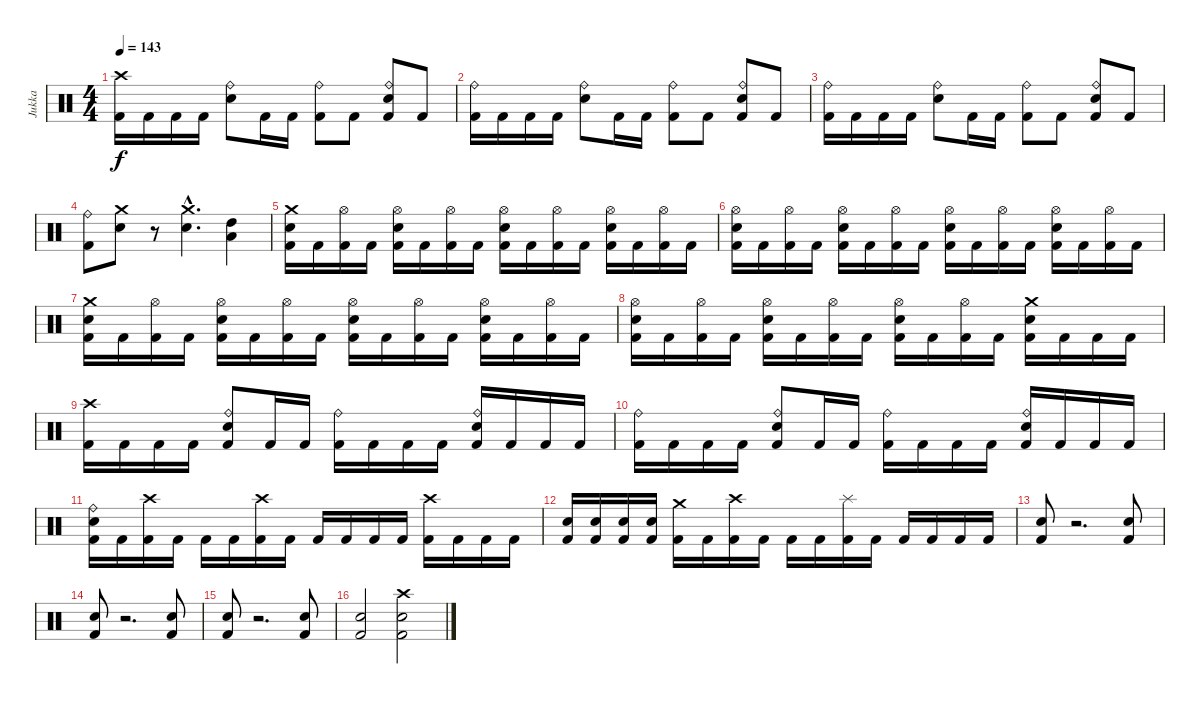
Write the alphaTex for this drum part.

\track ("Jukka" "Jukka") {instrument percussion}
\staff {score}
\articulation defaults
\ts (4 4)
\tempo 143
\clef neutral
\ks c
("Crash high (hit)" "Kick (hit) 2").16{dy f} "Kick (hit) 2".16 "Kick (hit) 2".16 "Kick (hit) 2".16 ("Ride (bell)" "Electric Snare (hit)").8 "Kick (hit) 2".16 "Kick (hit) 2".16 ("Ride (bell)" "Kick (hit) 2").8 "Kick (hit) 2".8 ("Ride (bell)" "Electric Snare (hit)" "Kick (hit) 2").8 "Kick (hit) 2".8 |
("Ride (bell)" "Kick (hit) 2").16 "Kick (hit) 2".16 "Kick (hit) 2".16 "Kick (hit) 2".16 ("Ride (bell)" "Electric Snare (hit)").8 "Kick (hit) 2".16 "Kick (hit) 2".16 ("Ride (bell)" "Kick (hit) 2").8 "Kick (hit) 2".8 ("Ride (bell)" "Electric Snare (hit)" "Kick (hit) 2").8 "Kick (hit) 2".8 |
("Ride (bell)" "Kick (hit) 2").16 "Kick (hit) 2".16 "Kick (hit) 2".16 "Kick (hit) 2".16 ("Ride (bell)" "Electric Snare (hit)").8 "Kick (hit) 2".16 "Kick (hit) 2".16 ("Ride (bell)" "Kick (hit) 2").8 "Kick (hit) 2".8 ("Ride (bell)" "Electric Snare (hit)" "Kick (hit) 2").8 "Kick (hit) 2".8 |
("Ride (bell)" "Kick (hit) 2").8 ("Crash medium (hit)" "Electric Snare (hit)").8 r.8 ("Crash medium (hit)"{hac} "Electric Snare (hit)"{hac}).4{d} ("High Tom (hit)" "Low Tom (hit)").4 |
("Crash medium (hit)" "Electric Snare (hit)" "Kick (hit) 2").16 "Kick (hit) 2".16 ("Hi-Hat (open)" "Kick (hit) 2").16 "Kick (hit) 2".16 ("Hi-Hat (open)" "Electric Snare (hit)" "Kick (hit) 2").16 "Kick (hit) 2".16 ("Hi-Hat (open)" "Kick (hit) 2").16 "Kick (hit) 2".16 ("Hi-Hat (open)" "Electric Snare (hit)" "Kick (hit) 2").16 "Kick (hit) 2".16 ("Hi-Hat (open)" "Kick (hit) 2").16 "Kick (hit) 2".16 ("Hi-Hat (open)" "Electric Snare (hit)" "Kick (hit) 2").16 "Kick (hit) 2".16 ("Hi-Hat (open)" "Kick (hit) 2").16 "Kick (hit) 2".16 |
("Hi-Hat (open)" "Electric Snare (hit)" "Kick (hit) 2").16 "Kick (hit) 2".16 ("Hi-Hat (open)" "Kick (hit) 2").16 "Kick (hit) 2".16 ("Hi-Hat (open)" "Electric Snare (hit)" "Kick (hit) 2").16 "Kick (hit) 2".16 ("Hi-Hat (open)" "Kick (hit) 2").16 "Kick (hit) 2".16 ("Hi-Hat (open)" "Electric Snare (hit)" "Kick (hit) 2").16 "Kick (hit) 2".16 ("Hi-Hat (open)" "Kick (hit) 2").16 "Kick (hit) 2".16 ("Hi-Hat (open)" "Electric Snare (hit)" "Kick (hit) 2").16 "Kick (hit) 2".16 ("Hi-Hat (open)" "Kick (hit) 2").16 "Kick (hit) 2".16 |
("Crash medium (hit)" "Electric Snare (hit)" "Kick (hit) 2").16 "Kick (hit) 2".16 ("Hi-Hat (open)" "Kick (hit) 2").16 "Kick (hit) 2".16 ("Hi-Hat (open)" "Electric Snare (hit)" "Kick (hit) 2").16 "Kick (hit) 2".16 ("Hi-Hat (open)" "Kick (hit) 2").16 "Kick (hit) 2".16 ("Hi-Hat (open)" "Electric Snare (hit)" "Kick (hit) 2").16 "Kick (hit) 2".16 ("Hi-Hat (open)" "Kick (hit) 2").16 "Kick (hit) 2".16 ("Hi-Hat (open)" "Electric Snare (hit)" "Kick (hit) 2").16 "Kick (hit) 2".16 ("Hi-Hat (open)" "Kick (hit) 2").16 "Kick (hit) 2".16 |
("Hi-Hat (open)" "Electric Snare (hit)" "Kick (hit) 2").16 "Kick (hit) 2".16 ("Hi-Hat (open)" "Kick (hit) 2").16 "Kick (hit) 2".16 ("Hi-Hat (open)" "Electric Snare (hit)" "Kick (hit) 2").16 "Kick (hit) 2".16 ("Hi-Hat (open)" "Kick (hit) 2").16 "Kick (hit) 2".16 ("Hi-Hat (open)" "Electric Snare (hit)" "Kick (hit) 2").16 "Kick (hit) 2".16 ("Hi-Hat (open)" "Kick (hit) 2").16 "Kick (hit) 2".16 ("Crash medium (hit)" "Electric Snare (hit)" "Kick (hit) 2").16 "Kick (hit) 2".16 "Kick (hit) 2".16 "Kick (hit) 2".16 |
("Crash high (hit)" "Kick (hit) 2").16 "Kick (hit) 2".16 "Kick (hit) 2".16 "Kick (hit) 2".16 ("Ride (bell)" "Electric Snare (hit)" "Kick (hit) 2").8 "Kick (hit) 2".16 "Kick (hit) 2".16 ("Ride (bell)" "Kick (hit) 2").16 "Kick (hit) 2".16 "Kick (hit) 2".16 "Kick (hit) 2".16 ("Ride (bell)" "Electric Snare (hit)" "Kick (hit) 2").16 "Kick (hit) 2".16 "Kick (hit) 2".16 "Kick (hit) 2".16 |
("Ride (bell)" "Kick (hit) 2").16 "Kick (hit) 2".16 "Kick (hit) 2".16 "Kick (hit) 2".16 ("Ride (bell)" "Electric Snare (hit)" "Kick (hit) 2").8 "Kick (hit) 2".16 "Kick (hit) 2".16 ("Ride (bell)" "Kick (hit) 2").16 "Kick (hit) 2".16 "Kick (hit) 2".16 "Kick (hit) 2".16 ("Ride (bell)" "Electric Snare (hit)" "Kick (hit) 2").16 "Kick (hit) 2".16 "Kick (hit) 2".16 "Kick (hit) 2".16 |
("Ride (bell)" "Electric Snare (hit)" "Kick (hit) 2").16 "Kick (hit) 2".16 ("Crash high (hit)" "Kick (hit) 2").16 "Kick (hit) 2".16 "Kick (hit) 2".16 "Kick (hit) 2".16 ("Crash high (hit)" "Kick (hit) 2").16 "Kick (hit) 2".16 "Kick (hit) 2".16 "Kick (hit) 2".16 "Kick (hit) 2".16 "Kick (hit) 2".16 ("Crash high (hit)" "Kick (hit) 2").16 "Kick (hit) 2".16 "Kick (hit) 2".16 "Kick (hit) 2".16 |
("Electric Snare (hit)" "Kick (hit) 2").16 ("Electric Snare (hit)" "Kick (hit) 2").16 ("Electric Snare (hit)" "Kick (hit) 2").16 ("Electric Snare (hit)" "Kick (hit) 2").16 ("Crash medium (hit)" "Kick (hit) 2").16 "Kick (hit) 2".16 ("Crash high (hit)" "Kick (hit) 2").16 "Kick (hit) 2".16 "Kick (hit) 2".16 "Kick (hit) 2".16 ("Splash (hit)" "Kick (hit) 2").16 "Kick (hit) 2".16 "Kick (hit) 2".16 "Kick (hit) 2".16 "Kick (hit) 2".16 "Kick (hit) 2".16 |
("Electric Snare (hit)" "Kick (hit) 2").8 r.2{d} ("Electric Snare (hit)" "Kick (hit) 2").8 |
("Electric Snare (hit)" "Kick (hit) 2").8 r.2{d} ("Electric Snare (hit)" "Kick (hit) 2").8 |
("Electric Snare (hit)" "Kick (hit) 2").8 r.2{d} ("Electric Snare (hit)" "Kick (hit) 2").8 |
("Electric Snare (hit)" "Kick (hit) 2").2 ("Crash high (hit)" "Electric Snare (hit)" "Kick (hit) 2").2
